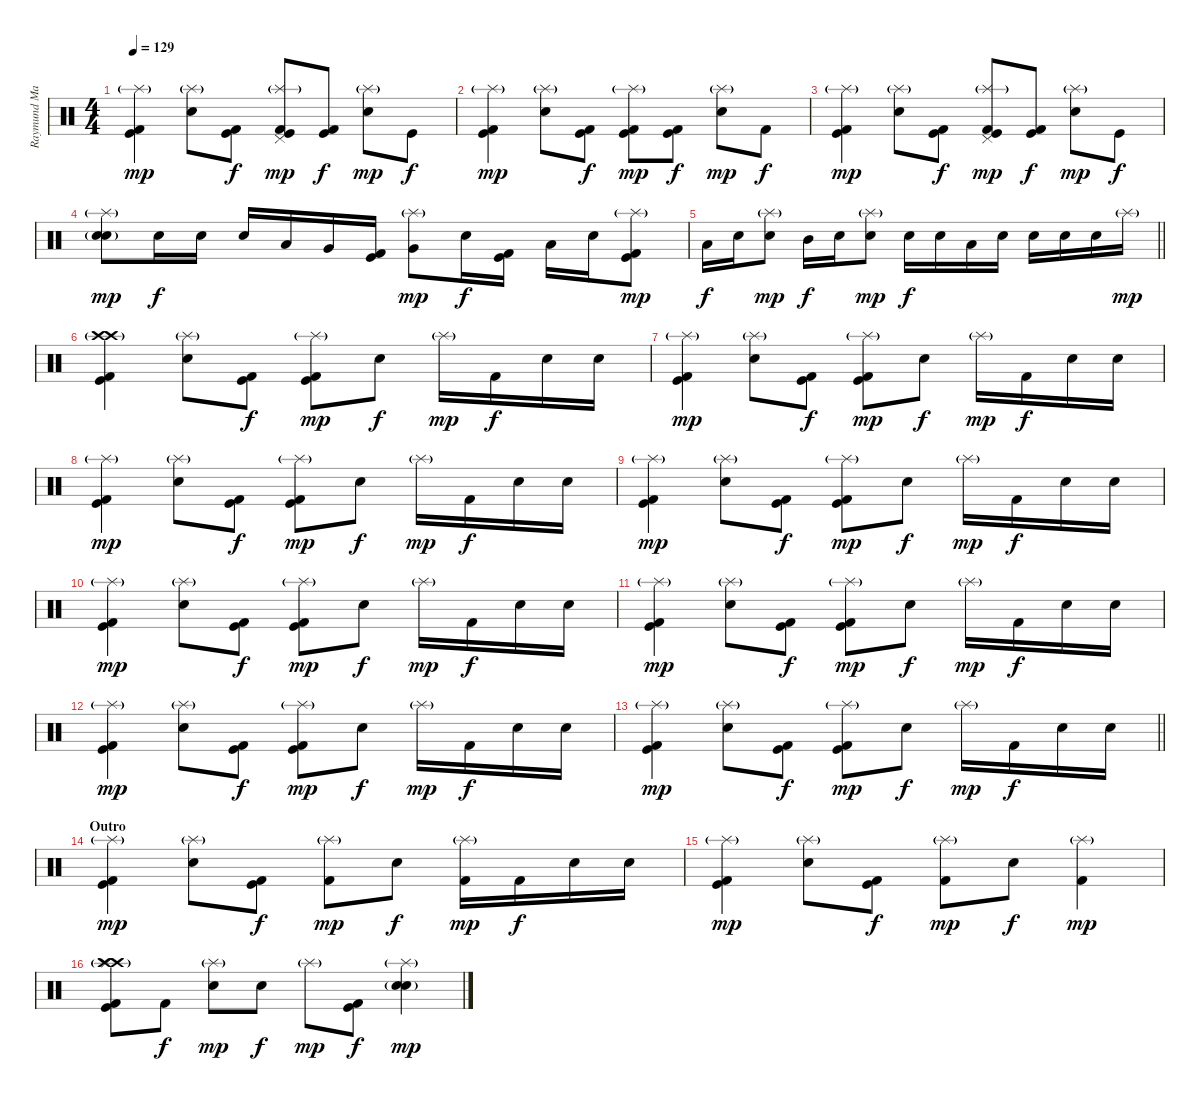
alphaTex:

\track ("Raymund Marasigan(Drums)" "Raymund Ma") {instrument percussion}
\staff {score}
\articulation defaults
\ts (4 4)
\tempo 129
\clef neutral
\ks c
("Kick (hit) 2" "Kick (hit)" "Splash (hit)"{g}).4{dy mp} ("Electric Snare (hit)" "Splash (hit)"{g}).8 ("Kick (hit) 2" "Kick (hit)").8{dy f} ("Kick (hit) 2" "Kick (hit)" "Splash (hit)"{g} "Pedal Hi-Hat (hit)").8{dy mp} ("Kick (hit) 2" "Kick (hit)").8{dy f} ("Electric Snare (hit)" "Splash (hit)"{g}).8{dy mp} "Kick (hit)".8{dy f} |
("Kick (hit) 2" "Kick (hit)" "Splash (hit)"{g}).4{dy mp} ("Electric Snare (hit)" "Splash (hit)"{g}).8 ("Kick (hit) 2" "Kick (hit)").8{dy f} ("Kick (hit) 2" "Kick (hit)" "Splash (hit)"{g}).8{dy mp} ("Kick (hit) 2" "Kick (hit)").8{dy f} ("Electric Snare (hit)" "Splash (hit)"{g}).8{dy mp} "Kick (hit) 2".8{dy f} |
("Kick (hit) 2" "Kick (hit)" "Splash (hit)"{g}).4{dy mp} ("Electric Snare (hit)" "Splash (hit)"{g}).8 ("Kick (hit) 2" "Kick (hit)").8{dy f} ("Kick (hit) 2" "Kick (hit)" "Splash (hit)"{g} "Pedal Hi-Hat (hit)").8{dy mp} ("Kick (hit) 2" "Kick (hit)").8{dy f} ("Electric Snare (hit)" "Splash (hit)"{g}).8{dy mp} "Kick (hit)".8{dy f} |
("Electric Snare (hit)" "Snare (hit) 2"{g} "Splash (hit)"{g}).8{dy mp} "Electric Snare (hit)".16{dy f} "Electric Snare (hit)".16 "Electric Snare (hit)".16 "Low Tom (hit)".16 "Very Low Tom (hit)".16 ("Kick (hit) 2" "Kick (hit)").16 ("Very Low Tom (hit)" "Splash (hit)"{g}).8{dy mp} "Electric Snare (hit)".16{dy f} ("Kick (hit) 2" "Kick (hit)").16 "Low Tom (hit)".16 "Electric Snare (hit)".16 ("Kick (hit) 2" "Kick (hit)" "Splash (hit)"{g}).8{dy mp} |
\barLineRight lightlight "Low Tom (hit)".16{dy f} "Electric Snare (hit)".16
("Electric Snare (hit)" "Splash (hit)"{g}).8{dy mp} "Mid Tom (hit)".16{dy f} "Electric Snare (hit)".16 ("Electric Snare (hit)" "Splash (hit)"{g}).8{dy mp} "Electric Snare (hit)".16{dy f} "Electric Snare (hit)".16 "Low Tom (hit)".16 "Electric Snare (hit)".16 "Electric Snare (hit)".16 "Electric Snare (hit)".16 "Electric Snare (hit)".16 "Splash (hit)"{g}.16{dy mp} |
("Crash high (hit)"{g} "Crash high (hit)"{g} "Kick (hit) 2" "Kick (hit)").4 ("Electric Snare (hit)" "Splash (hit)"{g}).8 ("Kick (hit) 2" "Kick (hit)").8{dy f} ("Kick (hit) 2" "Kick (hit)" "Splash (hit)"{g}).8{dy mp} "Electric Snare (hit)".8{dy f} "Splash (hit)"{g}.16{dy mp} "Kick (hit) 2".16{dy f} "Electric Snare (hit)".16 "Electric Snare (hit)".16 |
("Kick (hit) 2" "Kick (hit)" "Splash (hit)"{g}).4{dy mp} ("Electric Snare (hit)" "Splash (hit)"{g}).8 ("Kick (hit) 2" "Kick (hit)").8{dy f} ("Kick (hit) 2" "Kick (hit)" "Splash (hit)"{g}).8{dy mp} "Electric Snare (hit)".8{dy f} "Splash (hit)"{g}.16{dy mp} "Kick (hit) 2".16{dy f} "Electric Snare (hit)".16 "Electric Snare (hit)".16 |
("Kick (hit) 2" "Kick (hit)" "Splash (hit)"{g}).4{dy mp} ("Electric Snare (hit)" "Splash (hit)"{g}).8 ("Kick (hit) 2" "Kick (hit)").8{dy f} ("Kick (hit) 2" "Kick (hit)" "Splash (hit)"{g}).8{dy mp} "Electric Snare (hit)".8{dy f} "Splash (hit)"{g}.16{dy mp} "Kick (hit) 2".16{dy f} "Electric Snare (hit)".16 "Electric Snare (hit)".16 |
("Kick (hit) 2" "Kick (hit)" "Splash (hit)"{g}).4{dy mp} ("Electric Snare (hit)" "Splash (hit)"{g}).8 ("Kick (hit) 2" "Kick (hit)").8{dy f} ("Kick (hit) 2" "Kick (hit)" "Splash (hit)"{g}).8{dy mp} "Electric Snare (hit)".8{dy f} "Splash (hit)"{g}.16{dy mp} "Kick (hit) 2".16{dy f} "Electric Snare (hit)".16 "Electric Snare (hit)".16 |
("Kick (hit) 2" "Kick (hit)" "Splash (hit)"{g}).4{dy mp} ("Electric Snare (hit)" "Splash (hit)"{g}).8 ("Kick (hit) 2" "Kick (hit)").8{dy f} ("Kick (hit) 2" "Kick (hit)" "Splash (hit)"{g}).8{dy mp} "Electric Snare (hit)".8{dy f} "Splash (hit)"{g}.16{dy mp} "Kick (hit) 2".16{dy f} "Electric Snare (hit)".16 "Electric Snare (hit)".16 |
("Kick (hit) 2" "Kick (hit)" "Splash (hit)"{g}).4{dy mp} ("Electric Snare (hit)" "Splash (hit)"{g}).8 ("Kick (hit) 2" "Kick (hit)").8{dy f} ("Kick (hit) 2" "Kick (hit)" "Splash (hit)"{g}).8{dy mp} "Electric Snare (hit)".8{dy f} "Splash (hit)"{g}.16{dy mp} "Kick (hit) 2".16{dy f} "Electric Snare (hit)".16 "Electric Snare (hit)".16 |
("Kick (hit) 2" "Kick (hit)" "Splash (hit)"{g}).4{dy mp} ("Electric Snare (hit)" "Splash (hit)"{g}).8 ("Kick (hit) 2" "Kick (hit)").8{dy f} ("Kick (hit) 2" "Kick (hit)" "Splash (hit)"{g}).8{dy mp} "Electric Snare (hit)".8{dy f} "Splash (hit)"{g}.16{dy mp} "Kick (hit) 2".16{dy f} "Electric Snare (hit)".16 "Electric Snare (hit)".16 |
\barLineRight lightlight
("Kick (hit) 2" "Kick (hit)" "Splash (hit)"{g}).4{dy mp} ("Electric Snare (hit)" "Splash (hit)"{g}).8 ("Kick (hit) 2" "Kick (hit)").8{dy f} ("Kick (hit) 2" "Kick (hit)" "Splash (hit)"{g}).8{dy mp} "Electric Snare (hit)".8{dy f} "Splash (hit)"{g}.16{dy mp} "Kick (hit) 2".16{dy f} "Electric Snare (hit)".16 "Electric Snare (hit)".16 |
\section ("" "Outro")
("Kick (hit) 2" "Kick (hit)" "Splash (hit)"{g}).4{dy mp} ("Electric Snare (hit)" "Splash (hit)"{g}).8 ("Kick (hit) 2" "Kick (hit)").8{dy f} ("Kick (hit) 2" "Splash (hit)"{g}).8{dy mp} "Electric Snare (hit)".8{dy f} ("Splash (hit)"{g} "Kick (hit) 2").16{dy mp} "Kick (hit) 2".16{dy f} "Electric Snare (hit)".16 "Electric Snare (hit)".16 |
("Kick (hit) 2" "Kick (hit)" "Splash (hit)"{g}).4{dy mp} ("Electric Snare (hit)" "Splash (hit)"{g}).8 ("Kick (hit) 2" "Kick (hit)").8{dy f} ("Kick (hit) 2" "Splash (hit)"{g}).8{dy mp} "Electric Snare (hit)".8{dy f} ("Splash (hit)"{g} "Kick (hit) 2").4{dy mp} |
("Crash high (hit)"{g} "Crash high (hit)"{g} "Kick (hit) 2" "Kick (hit)" "Splash (hit)"{g}).8 "Kick (hit) 2".8{dy f} ("Electric Snare (hit)" "Splash (hit)"{g}).8{dy mp} "Electric Snare (hit)".8{dy f} "Splash (hit)"{g}.8{dy mp} ("Kick (hit) 2" "Kick (hit)").8{dy f} ("Electric Snare (hit)" "Snare (hit) 2"{g} "Splash (hit)"{g}).4{dy mp}
